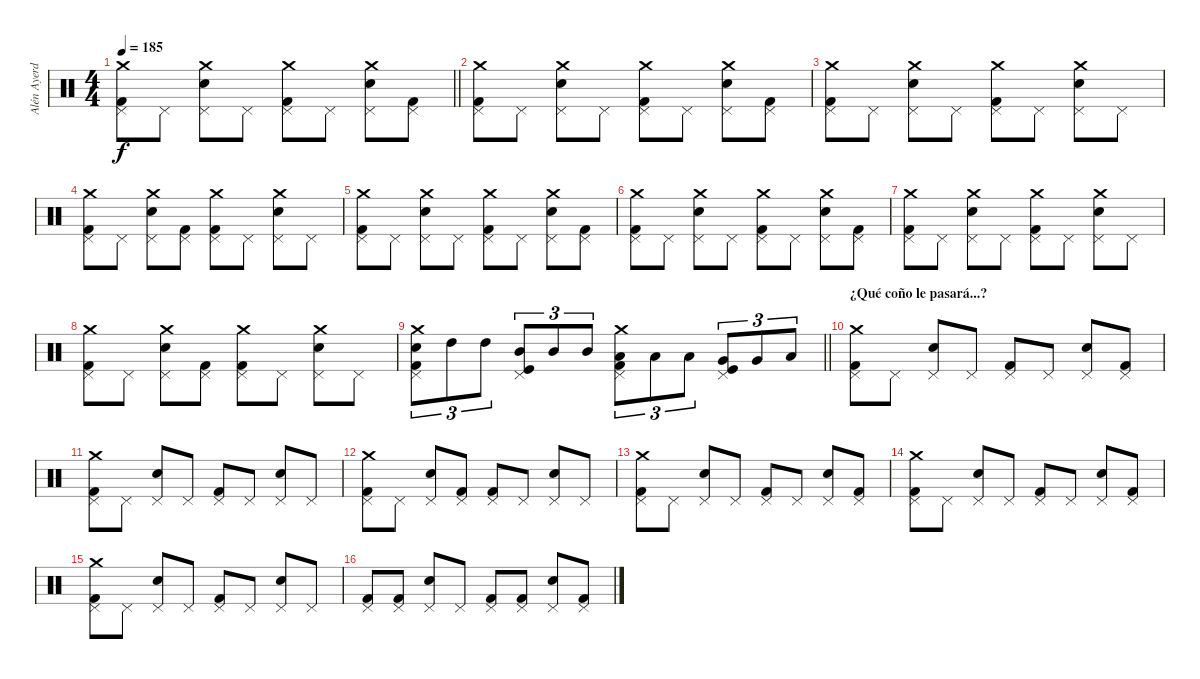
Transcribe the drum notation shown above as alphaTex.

\track ("Alén Ayerdi - Batería" "Alén Ayerd") {instrument percussion}
\staff {score}
\articulation defaults
\ts (4 4)
\tempo 185
\clef neutral
\barLineRight lightlight
\ks c
("Crash medium (hit)" "Pedal Hi-Hat (hit)" "Kick (hit) 2").8{dy f} "Pedal Hi-Hat (hit)".8 ("Crash medium (hit)" "Pedal Hi-Hat (hit)" "Electric Snare (hit)").8 "Pedal Hi-Hat (hit)".8 ("Crash medium (hit)" "Pedal Hi-Hat (hit)" "Kick (hit) 2").8 "Pedal Hi-Hat (hit)".8 ("Crash medium (hit)" "Pedal Hi-Hat (hit)" "Electric Snare (hit)").8 ("Pedal Hi-Hat (hit)" "Kick (hit) 2").8 |
("Crash medium (hit)" "Pedal Hi-Hat (hit)" "Kick (hit) 2").8 "Pedal Hi-Hat (hit)".8 ("Crash medium (hit)" "Pedal Hi-Hat (hit)" "Electric Snare (hit)").8 "Pedal Hi-Hat (hit)".8 ("Crash medium (hit)" "Pedal Hi-Hat (hit)" "Kick (hit) 2").8 "Pedal Hi-Hat (hit)".8 ("Crash medium (hit)" "Pedal Hi-Hat (hit)" "Electric Snare (hit)").8 ("Pedal Hi-Hat (hit)" "Kick (hit) 2").8 |
("Crash medium (hit)" "Pedal Hi-Hat (hit)" "Kick (hit) 2").8 "Pedal Hi-Hat (hit)".8 ("Crash medium (hit)" "Pedal Hi-Hat (hit)" "Electric Snare (hit)").8 "Pedal Hi-Hat (hit)".8 ("Crash medium (hit)" "Pedal Hi-Hat (hit)" "Kick (hit) 2").8 "Pedal Hi-Hat (hit)".8 ("Crash medium (hit)" "Pedal Hi-Hat (hit)" "Electric Snare (hit)").8 "Pedal Hi-Hat (hit)".8 |
("Crash medium (hit)" "Pedal Hi-Hat (hit)" "Kick (hit) 2").8 "Pedal Hi-Hat (hit)".8 ("Crash medium (hit)" "Pedal Hi-Hat (hit)" "Electric Snare (hit)").8 ("Pedal Hi-Hat (hit)" "Kick (hit) 2").8 ("Crash medium (hit)" "Pedal Hi-Hat (hit)" "Kick (hit) 2").8 "Pedal Hi-Hat (hit)".8 ("Crash medium (hit)" "Pedal Hi-Hat (hit)" "Electric Snare (hit)").8 "Pedal Hi-Hat (hit)".8 |
("Crash medium (hit)" "Pedal Hi-Hat (hit)" "Kick (hit) 2").8 "Pedal Hi-Hat (hit)".8 ("Crash medium (hit)" "Pedal Hi-Hat (hit)" "Electric Snare (hit)").8 "Pedal Hi-Hat (hit)".8 ("Crash medium (hit)" "Pedal Hi-Hat (hit)" "Kick (hit) 2").8 "Pedal Hi-Hat (hit)".8 ("Crash medium (hit)" "Pedal Hi-Hat (hit)" "Electric Snare (hit)").8 ("Pedal Hi-Hat (hit)" "Kick (hit) 2").8 |
("Crash medium (hit)" "Pedal Hi-Hat (hit)" "Kick (hit) 2").8 "Pedal Hi-Hat (hit)".8 ("Crash medium (hit)" "Pedal Hi-Hat (hit)" "Electric Snare (hit)").8 "Pedal Hi-Hat (hit)".8 ("Crash medium (hit)" "Pedal Hi-Hat (hit)" "Kick (hit) 2").8 "Pedal Hi-Hat (hit)".8 ("Crash medium (hit)" "Pedal Hi-Hat (hit)" "Electric Snare (hit)").8 ("Pedal Hi-Hat (hit)" "Kick (hit) 2").8 |
("Crash medium (hit)" "Pedal Hi-Hat (hit)" "Kick (hit) 2").8 "Pedal Hi-Hat (hit)".8 ("Crash medium (hit)" "Pedal Hi-Hat (hit)" "Electric Snare (hit)").8 "Pedal Hi-Hat (hit)".8 ("Crash medium (hit)" "Pedal Hi-Hat (hit)" "Kick (hit) 2").8 "Pedal Hi-Hat (hit)".8 ("Crash medium (hit)" "Pedal Hi-Hat (hit)" "Electric Snare (hit)").8 "Pedal Hi-Hat (hit)".8 |
("Crash medium (hit)" "Pedal Hi-Hat (hit)" "Kick (hit) 2").8 "Pedal Hi-Hat (hit)".8 ("Crash medium (hit)" "Pedal Hi-Hat (hit)" "Electric Snare (hit)").8 ("Pedal Hi-Hat (hit)" "Kick (hit) 2").8 ("Crash medium (hit)" "Pedal Hi-Hat (hit)" "Kick (hit) 2").8 "Pedal Hi-Hat (hit)".8 ("Crash medium (hit)" "Pedal Hi-Hat (hit)" "Electric Snare (hit)").8 "Pedal Hi-Hat (hit)".8 |
\barLineRight lightlight
("Crash medium (hit)" "Pedal Hi-Hat (hit)" "Electric Snare (hit)" "Kick (hit) 2").8{tu (3 2)} "High Tom (hit)".8{tu (3 2)} "High Tom (hit)".8{tu (3 2)} ("Pedal Hi-Hat (hit)" "Mid Tom (hit)" "Kick (hit)").8{tu (3 2)} "Mid Tom (hit)".8{tu (3 2)} "Mid Tom (hit)".8{tu (3 2)} ("Crash medium (hit)" "Pedal Hi-Hat (hit)" "Low Tom (hit)" "Kick (hit) 2").8{tu (3 2)} "Low Tom (hit)".8{tu (3 2)} "Low Tom (hit)".8{tu (3 2)} ("Pedal Hi-Hat (hit)" "Very Low Tom (hit)" "Kick (hit)").8{tu (3 2)} "Very Low Tom (hit)".8{tu (3 2)} "Low Floor Tom (hit)".8{tu (3 2)} |
\section ("" "¿Qué coño le pasará...?")
("Crash medium (hit)" "Pedal Hi-Hat (hit)" "Kick (hit) 2").8 "Pedal Hi-Hat (hit)".8 ("Pedal Hi-Hat (hit)" "Electric Snare (hit)").8 "Pedal Hi-Hat (hit)".8 ("Pedal Hi-Hat (hit)" "Kick (hit) 2").8 "Pedal Hi-Hat (hit)".8 ("Pedal Hi-Hat (hit)" "Electric Snare (hit)").8 ("Pedal Hi-Hat (hit)" "Kick (hit) 2").8 |
("Crash medium (hit)" "Pedal Hi-Hat (hit)" "Kick (hit) 2").8 "Pedal Hi-Hat (hit)".8 ("Pedal Hi-Hat (hit)" "Electric Snare (hit)").8 "Pedal Hi-Hat (hit)".8 ("Pedal Hi-Hat (hit)" "Kick (hit) 2").8 "Pedal Hi-Hat (hit)".8 ("Pedal Hi-Hat (hit)" "Electric Snare (hit)").8 "Pedal Hi-Hat (hit)".8 |
("Crash medium (hit)" "Pedal Hi-Hat (hit)" "Kick (hit) 2").8 "Pedal Hi-Hat (hit)".8 ("Pedal Hi-Hat (hit)" "Electric Snare (hit)").8 ("Pedal Hi-Hat (hit)" "Kick (hit) 2").8 ("Pedal Hi-Hat (hit)" "Kick (hit) 2").8 "Pedal Hi-Hat (hit)".8 ("Pedal Hi-Hat (hit)" "Electric Snare (hit)").8 "Pedal Hi-Hat (hit)".8 |
("Crash medium (hit)" "Pedal Hi-Hat (hit)" "Kick (hit) 2").8 "Pedal Hi-Hat (hit)".8 ("Pedal Hi-Hat (hit)" "Electric Snare (hit)").8 "Pedal Hi-Hat (hit)".8 ("Pedal Hi-Hat (hit)" "Kick (hit) 2").8 "Pedal Hi-Hat (hit)".8 ("Pedal Hi-Hat (hit)" "Electric Snare (hit)").8 ("Pedal Hi-Hat (hit)" "Kick (hit) 2").8 |
("Crash medium (hit)" "Pedal Hi-Hat (hit)" "Kick (hit) 2").8 "Pedal Hi-Hat (hit)".8 ("Pedal Hi-Hat (hit)" "Electric Snare (hit)").8 "Pedal Hi-Hat (hit)".8 ("Pedal Hi-Hat (hit)" "Kick (hit) 2").8 "Pedal Hi-Hat (hit)".8 ("Pedal Hi-Hat (hit)" "Electric Snare (hit)").8 ("Pedal Hi-Hat (hit)" "Kick (hit) 2").8 |
("Crash medium (hit)" "Pedal Hi-Hat (hit)" "Kick (hit) 2").8 "Pedal Hi-Hat (hit)".8 ("Pedal Hi-Hat (hit)" "Electric Snare (hit)").8 "Pedal Hi-Hat (hit)".8 ("Pedal Hi-Hat (hit)" "Kick (hit) 2").8 "Pedal Hi-Hat (hit)".8 ("Pedal Hi-Hat (hit)" "Electric Snare (hit)").8 "Pedal Hi-Hat (hit)".8 |
("Pedal Hi-Hat (hit)" "Kick (hit) 2").8 ("Pedal Hi-Hat (hit)" "Kick (hit) 2").8 ("Pedal Hi-Hat (hit)" "Electric Snare (hit)").8 "Pedal Hi-Hat (hit)".8 ("Pedal Hi-Hat (hit)" "Kick (hit) 2").8 ("Pedal Hi-Hat (hit)" "Kick (hit) 2").8 ("Pedal Hi-Hat (hit)" "Electric Snare (hit)").8 ("Pedal Hi-Hat (hit)" "Kick (hit) 2").8
